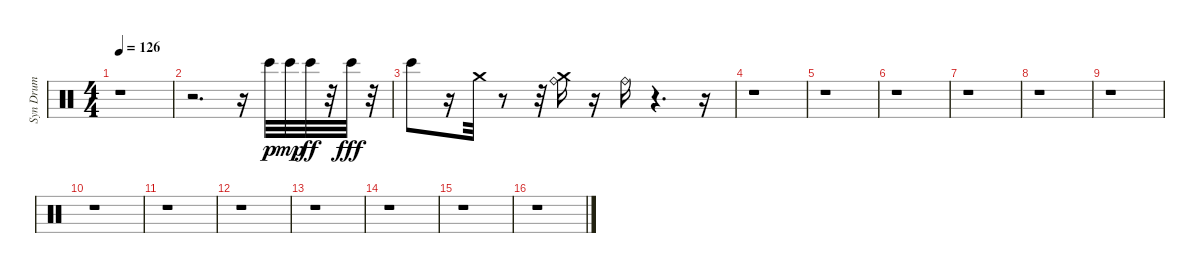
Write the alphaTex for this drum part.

\track ("Syn Drum" "Syn Drum") {instrument percussion}
\staff {score}
\articulation defaults
\ts (4 4)
\tempo 126
\clef neutral
\ks c
r.1{dy fff} |
r.2{d} r.16 "Bongo High (hit)".32{dy p} "Bongo High (hit)".32{dy mp} "Bongo High (hit)".32{dy ff} r.32 "Bongo High (hit)".32{dy fff} r.32 |
"Bongo High (hit)".8 r.16 "Crash medium (hit)".32 r.8 r.32 ("Crash medium (hit)" "Ride (bell)").16 r.16 "Ride (bell)".16 r.4{d} r.16 |
r.1 |
r.1 |
r.1 |
r.1 |
r.1 |
r.1 |
r.1 |
r.1 |
r.1 |
r.1 |
r.1 |
r.1 |
r.1
